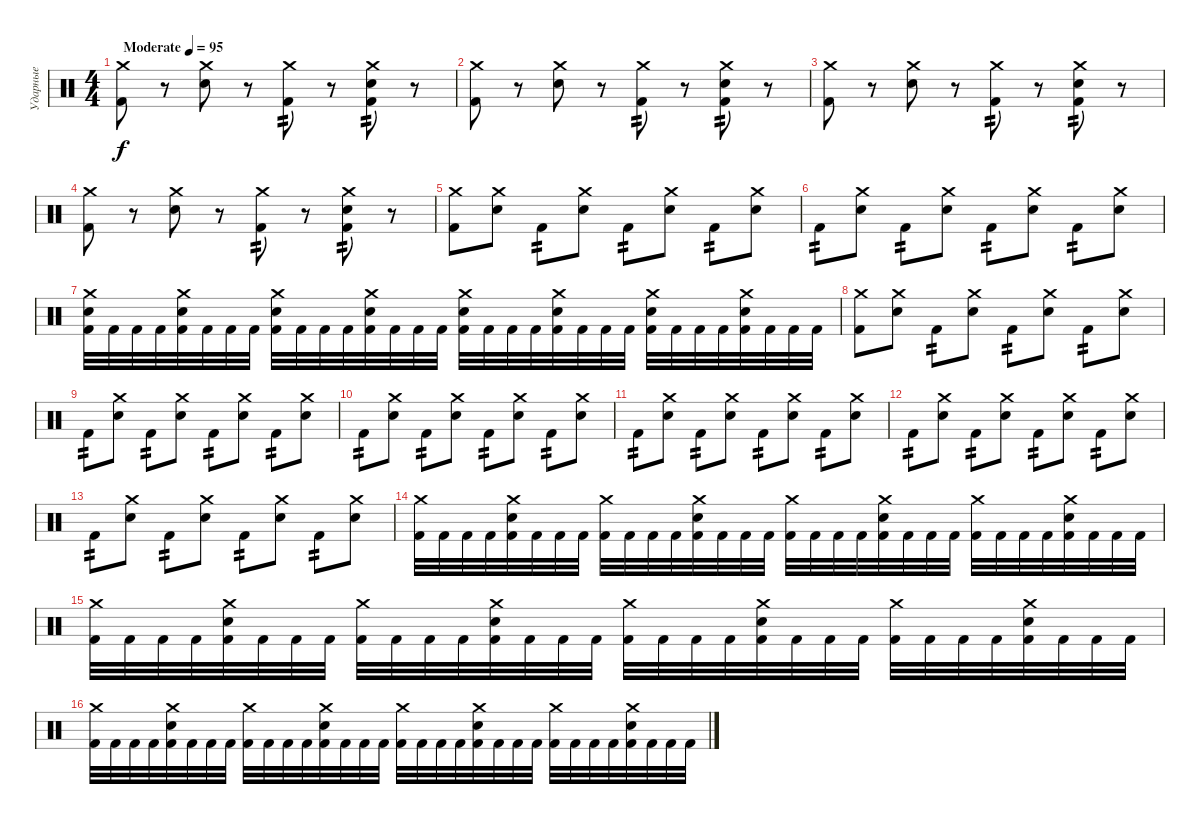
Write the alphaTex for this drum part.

\track ("Ударные" "Ударные") {instrument percussion}
\staff {score}
\articulation defaults
\ts (4 4)
\tempo (95 "Moderate")
\clef neutral
\ks c
("Crash medium (hit)" "Kick (hit) 2").8{dy f} r.8 ("Crash medium (hit)" "Electric Snare (hit)").8 r.8 ("Crash medium (hit)" "Kick (hit) 2").8{tp 2} r.8 ("Electric Snare (hit)" "Crash medium (hit)" "Kick (hit) 2").8{tp 2} r.8 |
("Crash medium (hit)" "Kick (hit) 2").8 r.8 ("Crash medium (hit)" "Electric Snare (hit)").8 r.8 ("Crash medium (hit)" "Kick (hit) 2").8{tp 2} r.8 ("Electric Snare (hit)" "Crash medium (hit)" "Kick (hit) 2").8{tp 2} r.8 |
("Crash medium (hit)" "Kick (hit) 2").8 r.8 ("Crash medium (hit)" "Electric Snare (hit)").8 r.8 ("Crash medium (hit)" "Kick (hit) 2").8{tp 2} r.8 ("Electric Snare (hit)" "Crash medium (hit)" "Kick (hit) 2").8{tp 2} r.8 |
("Crash medium (hit)" "Kick (hit) 2").8 r.8 ("Crash medium (hit)" "Electric Snare (hit)").8 r.8 ("Crash medium (hit)" "Kick (hit) 2").8{tp 2} r.8 ("Electric Snare (hit)" "Crash medium (hit)" "Kick (hit) 2").8{tp 2} r.8 |
("Crash medium (hit)" "Kick (hit) 2").8 ("Crash medium (hit)" "Electric Snare (hit)").8 "Kick (hit) 2".8{tp 2} ("Crash medium (hit)" "Electric Snare (hit)").8 "Kick (hit) 2".8{tp 2} ("Crash medium (hit)" "Electric Snare (hit)").8 "Kick (hit) 2".8{tp 2} ("Crash medium (hit)" "Electric Snare (hit)").8 |
"Kick (hit) 2".8{tp 2} ("Crash medium (hit)" "Electric Snare (hit)").8 "Kick (hit) 2".8{tp 2} ("Crash medium (hit)" "Electric Snare (hit)").8 "Kick (hit) 2".8{tp 2} ("Crash medium (hit)" "Electric Snare (hit)").8 "Kick (hit) 2".8{tp 2} ("Crash medium (hit)" "Electric Snare (hit)").8 |
("Kick (hit) 2" "Electric Snare (hit)" "Crash medium (hit)").32 "Kick (hit) 2".32 "Kick (hit) 2".32 "Kick (hit) 2".32 ("Kick (hit) 2" "Electric Snare (hit)" "Crash medium (hit)").32 "Kick (hit) 2".32 "Kick (hit) 2".32 "Kick (hit) 2".32 ("Kick (hit) 2" "Electric Snare (hit)" "Crash medium (hit)").32 "Kick (hit) 2".32 "Kick (hit) 2".32 "Kick (hit) 2".32 ("Kick (hit) 2" "Electric Snare (hit)" "Crash medium (hit)").32 "Kick (hit) 2".32 "Kick (hit) 2".32 "Kick (hit) 2".32 ("Kick (hit) 2" "Electric Snare (hit)" "Crash medium (hit)").32 "Kick (hit) 2".32 "Kick (hit) 2".32 "Kick (hit) 2".32 ("Kick (hit) 2" "Electric Snare (hit)" "Crash medium (hit)").32 "Kick (hit) 2".32 "Kick (hit) 2".32 "Kick (hit) 2".32 ("Kick (hit) 2" "Electric Snare (hit)" "Crash medium (hit)").32 "Kick (hit) 2".32 "Kick (hit) 2".32 "Kick (hit) 2".32 ("Kick (hit) 2" "Electric Snare (hit)" "Crash medium (hit)").32 "Kick (hit) 2".32 "Kick (hit) 2".32 "Kick (hit) 2".32 |
("Crash medium (hit)" "Kick (hit) 2").8 ("Crash medium (hit)" "Electric Snare (hit)").8 "Kick (hit) 2".8{tp 2} ("Crash medium (hit)" "Electric Snare (hit)").8 "Kick (hit) 2".8{tp 2} ("Crash medium (hit)" "Electric Snare (hit)").8 "Kick (hit) 2".8{tp 2} ("Crash medium (hit)" "Electric Snare (hit)").8 |
"Kick (hit) 2".8{tp 2} ("Crash medium (hit)" "Electric Snare (hit)").8 "Kick (hit) 2".8{tp 2} ("Crash medium (hit)" "Electric Snare (hit)").8 "Kick (hit) 2".8{tp 2} ("Crash medium (hit)" "Electric Snare (hit)").8 "Kick (hit) 2".8{tp 2} ("Crash medium (hit)" "Electric Snare (hit)").8 |
"Kick (hit) 2".8{tp 2} ("Crash medium (hit)" "Electric Snare (hit)").8 "Kick (hit) 2".8{tp 2} ("Crash medium (hit)" "Electric Snare (hit)").8 "Kick (hit) 2".8{tp 2} ("Crash medium (hit)" "Electric Snare (hit)").8 "Kick (hit) 2".8{tp 2} ("Crash medium (hit)" "Electric Snare (hit)").8 |
"Kick (hit) 2".8{tp 2} ("Crash medium (hit)" "Electric Snare (hit)").8 "Kick (hit) 2".8{tp 2} ("Crash medium (hit)" "Electric Snare (hit)").8 "Kick (hit) 2".8{tp 2} ("Crash medium (hit)" "Electric Snare (hit)").8 "Kick (hit) 2".8{tp 2} ("Crash medium (hit)" "Electric Snare (hit)").8 |
"Kick (hit) 2".8{tp 2} ("Crash medium (hit)" "Electric Snare (hit)").8 "Kick (hit) 2".8{tp 2} ("Crash medium (hit)" "Electric Snare (hit)").8 "Kick (hit) 2".8{tp 2} ("Crash medium (hit)" "Electric Snare (hit)").8 "Kick (hit) 2".8{tp 2} ("Crash medium (hit)" "Electric Snare (hit)").8 |
"Kick (hit) 2".8{tp 2} ("Crash medium (hit)" "Electric Snare (hit)").8 "Kick (hit) 2".8{tp 2} ("Crash medium (hit)" "Electric Snare (hit)").8 "Kick (hit) 2".8{tp 2} ("Crash medium (hit)" "Electric Snare (hit)").8 "Kick (hit) 2".8{tp 2} ("Crash medium (hit)" "Electric Snare (hit)").8 |
("Kick (hit) 2" "Crash medium (hit)").32 "Kick (hit) 2".32 "Kick (hit) 2".32 "Kick (hit) 2".32 ("Kick (hit) 2" "Electric Snare (hit)" "Crash medium (hit)").32 "Kick (hit) 2".32 "Kick (hit) 2".32 "Kick (hit) 2".32 ("Kick (hit) 2" "Crash medium (hit)").32 "Kick (hit) 2".32 "Kick (hit) 2".32 "Kick (hit) 2".32 ("Kick (hit) 2" "Electric Snare (hit)" "Crash medium (hit)").32 "Kick (hit) 2".32 "Kick (hit) 2".32 "Kick (hit) 2".32 ("Kick (hit) 2" "Crash medium (hit)").32 "Kick (hit) 2".32 "Kick (hit) 2".32 "Kick (hit) 2".32 ("Kick (hit) 2" "Electric Snare (hit)" "Crash medium (hit)").32 "Kick (hit) 2".32 "Kick (hit) 2".32 "Kick (hit) 2".32 ("Kick (hit) 2" "Crash medium (hit)").32 "Kick (hit) 2".32 "Kick (hit) 2".32 "Kick (hit) 2".32 ("Kick (hit) 2" "Electric Snare (hit)" "Crash medium (hit)").32 "Kick (hit) 2".32 "Kick (hit) 2".32 "Kick (hit) 2".32 |
("Kick (hit) 2" "Crash medium (hit)").32 "Kick (hit) 2".32 "Kick (hit) 2".32 "Kick (hit) 2".32 ("Kick (hit) 2" "Electric Snare (hit)" "Crash medium (hit)").32 "Kick (hit) 2".32 "Kick (hit) 2".32 "Kick (hit) 2".32 ("Kick (hit) 2" "Crash medium (hit)").32 "Kick (hit) 2".32 "Kick (hit) 2".32 "Kick (hit) 2".32 ("Kick (hit) 2" "Electric Snare (hit)" "Crash medium (hit)").32 "Kick (hit) 2".32 "Kick (hit) 2".32 "Kick (hit) 2".32 ("Kick (hit) 2" "Crash medium (hit)").32 "Kick (hit) 2".32 "Kick (hit) 2".32 "Kick (hit) 2".32 ("Kick (hit) 2" "Electric Snare (hit)" "Crash medium (hit)").32 "Kick (hit) 2".32 "Kick (hit) 2".32 "Kick (hit) 2".32 ("Kick (hit) 2" "Crash medium (hit)").32 "Kick (hit) 2".32 "Kick (hit) 2".32 "Kick (hit) 2".32 ("Kick (hit) 2" "Electric Snare (hit)" "Crash medium (hit)").32 "Kick (hit) 2".32 "Kick (hit) 2".32 "Kick (hit) 2".32 |
("Kick (hit) 2" "Crash medium (hit)").32 "Kick (hit) 2".32 "Kick (hit) 2".32 "Kick (hit) 2".32 ("Kick (hit) 2" "Electric Snare (hit)" "Crash medium (hit)").32 "Kick (hit) 2".32 "Kick (hit) 2".32 "Kick (hit) 2".32 ("Kick (hit) 2" "Crash medium (hit)").32 "Kick (hit) 2".32 "Kick (hit) 2".32 "Kick (hit) 2".32 ("Kick (hit) 2" "Electric Snare (hit)" "Crash medium (hit)").32 "Kick (hit) 2".32 "Kick (hit) 2".32 "Kick (hit) 2".32 ("Kick (hit) 2" "Crash medium (hit)").32 "Kick (hit) 2".32 "Kick (hit) 2".32 "Kick (hit) 2".32 ("Kick (hit) 2" "Electric Snare (hit)" "Crash medium (hit)").32 "Kick (hit) 2".32 "Kick (hit) 2".32 "Kick (hit) 2".32 ("Kick (hit) 2" "Crash medium (hit)").32 "Kick (hit) 2".32 "Kick (hit) 2".32 "Kick (hit) 2".32 ("Kick (hit) 2" "Electric Snare (hit)" "Crash medium (hit)").32 "Kick (hit) 2".32 "Kick (hit) 2".32 "Kick (hit) 2".32
